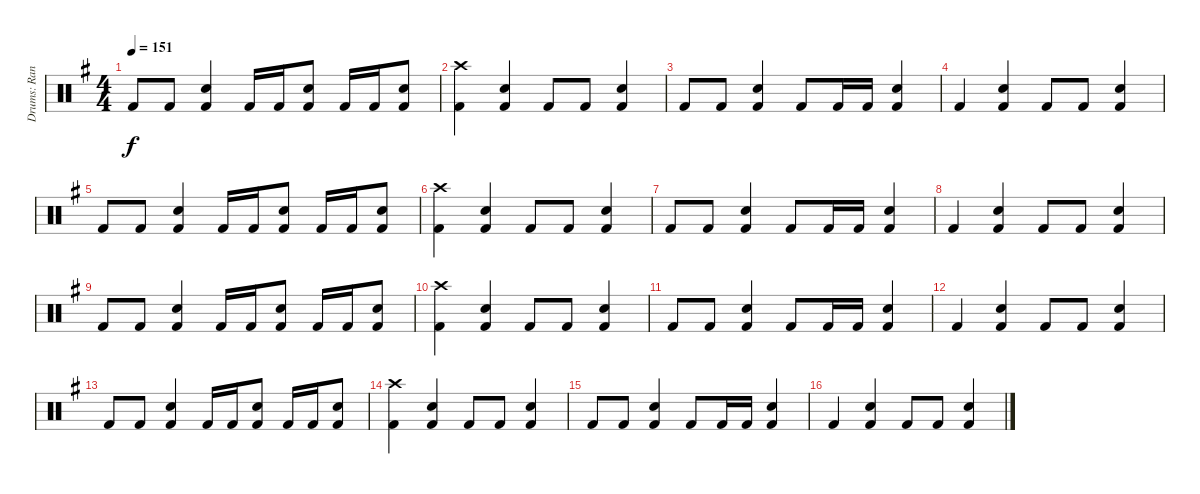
\track ("Drums: Randy" "Drums: Ran") {instrument percussion}
\staff {score}
\articulation defaults
\ts (4 4)
\tempo 151
\clef neutral
\ks g "Kick (hit) 2".8{dy f} "Kick (hit) 2".8
("Snare (hit) 2" "Kick (hit) 2").4 "Kick (hit) 2".16 "Kick (hit) 2".16 ("Snare (hit) 2" "Kick (hit) 2").8 "Kick (hit) 2".16 "Kick (hit) 2".16 ("Snare (hit) 2" "Kick (hit) 2").8 |
("Crash high (hit)" "Kick (hit) 2").4 ("Snare (hit) 2" "Kick (hit) 2").4 "Kick (hit) 2".8 "Kick (hit) 2".8 ("Snare (hit) 2" "Kick (hit) 2").4 |
"Kick (hit) 2".8 "Kick (hit) 2".8 ("Snare (hit) 2" "Kick (hit) 2").4 "Kick (hit) 2".8 "Kick (hit) 2".16 "Kick (hit) 2".16 ("Snare (hit) 2" "Kick (hit) 2").4 |
"Kick (hit) 2".4 ("Snare (hit) 2" "Kick (hit) 2").4 "Kick (hit) 2".8 "Kick (hit) 2".8 ("Snare (hit) 2" "Kick (hit) 2").4 |
"Kick (hit) 2".8 "Kick (hit) 2".8 ("Snare (hit) 2" "Kick (hit) 2").4 "Kick (hit) 2".16 "Kick (hit) 2".16 ("Snare (hit) 2" "Kick (hit) 2").8 "Kick (hit) 2".16 "Kick (hit) 2".16 ("Snare (hit) 2" "Kick (hit) 2").8 |
("Crash high (hit)" "Kick (hit) 2").4 ("Snare (hit) 2" "Kick (hit) 2").4 "Kick (hit) 2".8 "Kick (hit) 2".8 ("Snare (hit) 2" "Kick (hit) 2").4 |
"Kick (hit) 2".8 "Kick (hit) 2".8 ("Snare (hit) 2" "Kick (hit) 2").4 "Kick (hit) 2".8 "Kick (hit) 2".16 "Kick (hit) 2".16 ("Snare (hit) 2" "Kick (hit) 2").4 |
"Kick (hit) 2".4 ("Snare (hit) 2" "Kick (hit) 2").4 "Kick (hit) 2".8 "Kick (hit) 2".8 ("Snare (hit) 2" "Kick (hit) 2").4 |
"Kick (hit) 2".8 "Kick (hit) 2".8 ("Snare (hit) 2" "Kick (hit) 2").4 "Kick (hit) 2".16 "Kick (hit) 2".16 ("Snare (hit) 2" "Kick (hit) 2").8 "Kick (hit) 2".16 "Kick (hit) 2".16 ("Snare (hit) 2" "Kick (hit) 2").8 |
("Crash high (hit)" "Kick (hit) 2").4 ("Snare (hit) 2" "Kick (hit) 2").4 "Kick (hit) 2".8 "Kick (hit) 2".8 ("Snare (hit) 2" "Kick (hit) 2").4 |
"Kick (hit) 2".8 "Kick (hit) 2".8 ("Snare (hit) 2" "Kick (hit) 2").4 "Kick (hit) 2".8 "Kick (hit) 2".16 "Kick (hit) 2".16 ("Snare (hit) 2" "Kick (hit) 2").4 |
"Kick (hit) 2".4 ("Snare (hit) 2" "Kick (hit) 2").4 "Kick (hit) 2".8 "Kick (hit) 2".8 ("Snare (hit) 2" "Kick (hit) 2").4 |
"Kick (hit) 2".8 "Kick (hit) 2".8 ("Snare (hit) 2" "Kick (hit) 2").4 "Kick (hit) 2".16 "Kick (hit) 2".16 ("Snare (hit) 2" "Kick (hit) 2").8 "Kick (hit) 2".16 "Kick (hit) 2".16 ("Snare (hit) 2" "Kick (hit) 2").8 |
("Crash high (hit)" "Kick (hit) 2").4 ("Snare (hit) 2" "Kick (hit) 2").4 "Kick (hit) 2".8 "Kick (hit) 2".8 ("Snare (hit) 2" "Kick (hit) 2").4 |
"Kick (hit) 2".8 "Kick (hit) 2".8 ("Snare (hit) 2" "Kick (hit) 2").4 "Kick (hit) 2".8 "Kick (hit) 2".16 "Kick (hit) 2".16 ("Snare (hit) 2" "Kick (hit) 2").4 |
"Kick (hit) 2".4 ("Snare (hit) 2" "Kick (hit) 2").4 "Kick (hit) 2".8 "Kick (hit) 2".8 ("Snare (hit) 2" "Kick (hit) 2").4
